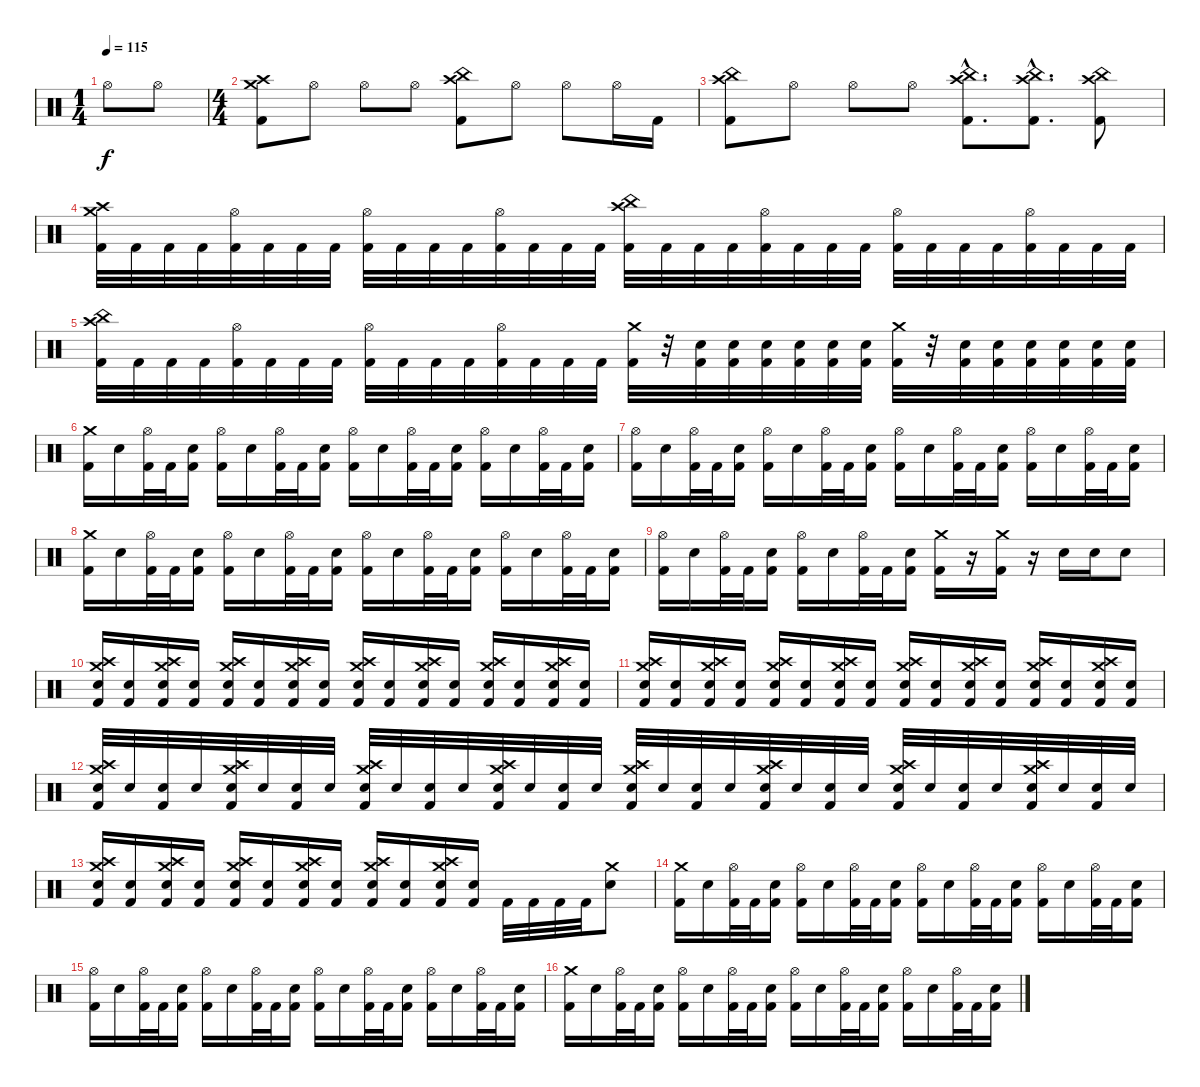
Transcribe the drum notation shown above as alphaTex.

\track "" {instrument percussion}
\staff {score}
\articulation defaults
\ts (1 4)
\tempo 115
\clef neutral
\ks c "Hi-Hat (open)".8{dy f} "Hi-Hat (open)".8
|
\ts (4 4)
("Kick (hit) 2" "Crash high (hit)" "Crash medium (hit)").8 "Hi-Hat (open)".8 "Hi-Hat (open)".8 "Hi-Hat (open)".8 ("Kick (hit) 2" "Crash high (hit)" "China (hit)").8 "Hi-Hat (open)".8 "Hi-Hat (open)".8 "Hi-Hat (open)".16 "Kick (hit) 2".16 |
("Kick (hit) 2" "Crash high (hit)" "China (hit)").8 "Hi-Hat (open)".8 "Hi-Hat (open)".8 "Hi-Hat (open)".8 ("Kick (hit) 2"{hac} "China (hit)"{hac} "Crash high (hit)"{hac}).8{d} ("Kick (hit) 2"{hac} "China (hit)"{hac} "Crash high (hit)"{hac}).8{d} ("Kick (hit) 2" "China (hit)" "Crash high (hit)").8 |
("Kick (hit) 2" "Crash high (hit)" "Crash medium (hit)").32 "Kick (hit) 2".32 "Kick (hit) 2".32 "Kick (hit) 2".32 ("Kick (hit) 2" "Hi-Hat (open)").32 "Kick (hit) 2".32 "Kick (hit) 2".32 "Kick (hit) 2".32 ("Kick (hit) 2" "Hi-Hat (open)").32 "Kick (hit) 2".32 "Kick (hit) 2".32 "Kick (hit) 2".32 ("Kick (hit) 2" "Hi-Hat (open)").32 "Kick (hit) 2".32 "Kick (hit) 2".32 "Kick (hit) 2".32 ("Kick (hit) 2" "Crash high (hit)" "China (hit)").32 "Kick (hit) 2".32 "Kick (hit) 2".32 "Kick (hit) 2".32 ("Kick (hit) 2" "Hi-Hat (open)").32 "Kick (hit) 2".32 "Kick (hit) 2".32 "Kick (hit) 2".32 ("Kick (hit) 2" "Hi-Hat (open)").32 "Kick (hit) 2".32 "Kick (hit) 2".32 "Kick (hit) 2".32 ("Kick (hit) 2" "Hi-Hat (open)").32 "Kick (hit) 2".32 "Kick (hit) 2".32 "Kick (hit) 2".32 |
("Kick (hit) 2" "Crash high (hit)" "China (hit)").32 "Kick (hit) 2".32 "Kick (hit) 2".32 "Kick (hit) 2".32 ("Kick (hit) 2" "Hi-Hat (open)").32 "Kick (hit) 2".32 "Kick (hit) 2".32 "Kick (hit) 2".32 ("Kick (hit) 2" "Hi-Hat (open)").32 "Kick (hit) 2".32 "Kick (hit) 2".32 "Kick (hit) 2".32 ("Kick (hit) 2" "Hi-Hat (open)").32 "Kick (hit) 2".32 "Kick (hit) 2".32 "Kick (hit) 2".32 ("Kick (hit) 2" "Crash medium (hit)").32 r.32 ("Kick (hit) 2" "Electric Snare (hit)").32 ("Kick (hit) 2" "Electric Snare (hit)").32 ("Kick (hit) 2" "Electric Snare (hit)").32 ("Kick (hit) 2" "Electric Snare (hit)").32 ("Kick (hit) 2" "Electric Snare (hit)").32 ("Kick (hit) 2" "Electric Snare (hit)").32 ("Kick (hit) 2" "Crash medium (hit)").32 r.32 ("Kick (hit) 2" "Electric Snare (hit)").32 ("Kick (hit) 2" "Electric Snare (hit)").32 ("Kick (hit) 2" "Electric Snare (hit)").32 ("Kick (hit) 2" "Electric Snare (hit)").32 ("Kick (hit) 2" "Electric Snare (hit)").32 ("Kick (hit) 2" "Electric Snare (hit)").32 |
("Kick (hit) 2" "Crash medium (hit)").16 "Electric Snare (hit)".16 ("Kick (hit) 2" "Hi-Hat (open)").32 "Kick (hit) 2".32 ("Kick (hit) 2" "Electric Snare (hit)").16 ("Kick (hit) 2" "Hi-Hat (open)").16 "Electric Snare (hit)".16 ("Kick (hit) 2" "Hi-Hat (open)").32 "Kick (hit) 2".32 ("Kick (hit) 2" "Electric Snare (hit)").16 ("Kick (hit) 2" "Hi-Hat (open)").16 "Electric Snare (hit)".16 ("Kick (hit) 2" "Hi-Hat (open)").32 "Kick (hit) 2".32 ("Kick (hit) 2" "Electric Snare (hit)").16 ("Kick (hit) 2" "Hi-Hat (open)").16 "Electric Snare (hit)".16 ("Kick (hit) 2" "Hi-Hat (open)").32 "Kick (hit) 2".32 ("Kick (hit) 2" "Electric Snare (hit)").16 |
("Kick (hit) 2" "Hi-Hat (open)").16 "Electric Snare (hit)".16 ("Kick (hit) 2" "Hi-Hat (open)").32 "Kick (hit) 2".32 ("Kick (hit) 2" "Electric Snare (hit)").16 ("Kick (hit) 2" "Hi-Hat (open)").16 "Electric Snare (hit)".16 ("Kick (hit) 2" "Hi-Hat (open)").32 "Kick (hit) 2".32 ("Kick (hit) 2" "Electric Snare (hit)").16 ("Kick (hit) 2" "Hi-Hat (open)").16 "Electric Snare (hit)".16 ("Kick (hit) 2" "Hi-Hat (open)").32 "Kick (hit) 2".32 ("Kick (hit) 2" "Electric Snare (hit)").16 ("Kick (hit) 2" "Hi-Hat (open)").16 "Electric Snare (hit)".16 ("Kick (hit) 2" "Hi-Hat (open)").32 "Kick (hit) 2".32 ("Kick (hit) 2" "Electric Snare (hit)").16 |
("Kick (hit) 2" "Crash medium (hit)").16 "Electric Snare (hit)".16 ("Kick (hit) 2" "Hi-Hat (open)").32 "Kick (hit) 2".32 ("Kick (hit) 2" "Electric Snare (hit)").16 ("Kick (hit) 2" "Hi-Hat (open)").16 "Electric Snare (hit)".16 ("Kick (hit) 2" "Hi-Hat (open)").32 "Kick (hit) 2".32 ("Kick (hit) 2" "Electric Snare (hit)").16 ("Kick (hit) 2" "Hi-Hat (open)").16 "Electric Snare (hit)".16 ("Kick (hit) 2" "Hi-Hat (open)").32 "Kick (hit) 2".32 ("Kick (hit) 2" "Electric Snare (hit)").16 ("Kick (hit) 2" "Hi-Hat (open)").16 "Electric Snare (hit)".16 ("Kick (hit) 2" "Hi-Hat (open)").32 "Kick (hit) 2".32 ("Kick (hit) 2" "Electric Snare (hit)").16 |
("Kick (hit) 2" "Hi-Hat (open)").16 "Electric Snare (hit)".16 ("Kick (hit) 2" "Hi-Hat (open)").32 "Kick (hit) 2".32 ("Kick (hit) 2" "Electric Snare (hit)").16 ("Kick (hit) 2" "Hi-Hat (open)").16 "Electric Snare (hit)".16 ("Kick (hit) 2" "Hi-Hat (open)").32 "Kick (hit) 2".32 ("Kick (hit) 2" "Electric Snare (hit)").16 ("Kick (hit) 2" "Crash medium (hit)").16 r.16 ("Kick (hit) 2" "Crash medium (hit)").16 r.16 "Electric Snare (hit)".16 "Electric Snare (hit)".16 "Electric Snare (hit)".8 |
("Kick (hit) 2" "Electric Snare (hit)" "Crash high (hit)" "Crash medium (hit)").16 ("Kick (hit) 2" "Electric Snare (hit)").16 ("Kick (hit) 2" "Electric Snare (hit)" "Crash high (hit)" "Crash medium (hit)").16 ("Kick (hit) 2" "Electric Snare (hit)").16 ("Kick (hit) 2" "Electric Snare (hit)" "Crash high (hit)" "Crash medium (hit)").16 ("Kick (hit) 2" "Electric Snare (hit)").16 ("Kick (hit) 2" "Electric Snare (hit)" "Crash high (hit)" "Crash medium (hit)").16 ("Kick (hit) 2" "Electric Snare (hit)").16 ("Kick (hit) 2" "Electric Snare (hit)" "Crash high (hit)" "Crash medium (hit)").16 ("Kick (hit) 2" "Electric Snare (hit)").16 ("Kick (hit) 2" "Electric Snare (hit)" "Crash high (hit)" "Crash medium (hit)").16 ("Kick (hit) 2" "Electric Snare (hit)").16 ("Kick (hit) 2" "Electric Snare (hit)" "Crash high (hit)" "Crash medium (hit)").16 ("Kick (hit) 2" "Electric Snare (hit)").16 ("Kick (hit) 2" "Electric Snare (hit)" "Crash high (hit)" "Crash medium (hit)").16 ("Kick (hit) 2" "Electric Snare (hit)").16 |
("Kick (hit) 2" "Electric Snare (hit)" "Crash high (hit)" "Crash medium (hit)").16 ("Kick (hit) 2" "Electric Snare (hit)").16 ("Kick (hit) 2" "Electric Snare (hit)" "Crash high (hit)" "Crash medium (hit)").16 ("Kick (hit) 2" "Electric Snare (hit)").16 ("Kick (hit) 2" "Electric Snare (hit)" "Crash high (hit)" "Crash medium (hit)").16 ("Kick (hit) 2" "Electric Snare (hit)").16 ("Kick (hit) 2" "Electric Snare (hit)" "Crash high (hit)" "Crash medium (hit)").16 ("Kick (hit) 2" "Electric Snare (hit)").16 ("Kick (hit) 2" "Electric Snare (hit)" "Crash high (hit)" "Crash medium (hit)").16 ("Kick (hit) 2" "Electric Snare (hit)").16 ("Kick (hit) 2" "Electric Snare (hit)" "Crash high (hit)" "Crash medium (hit)").16 ("Kick (hit) 2" "Electric Snare (hit)").16 ("Kick (hit) 2" "Electric Snare (hit)" "Crash high (hit)" "Crash medium (hit)").16 ("Kick (hit) 2" "Electric Snare (hit)").16 ("Kick (hit) 2" "Electric Snare (hit)" "Crash high (hit)" "Crash medium (hit)").16 ("Kick (hit) 2" "Electric Snare (hit)").16 |
("Kick (hit) 2" "Electric Snare (hit)" "Crash high (hit)" "Crash medium (hit)").32 "Electric Snare (hit)".32 ("Kick (hit) 2" "Electric Snare (hit)").32 "Electric Snare (hit)".32 ("Kick (hit) 2" "Electric Snare (hit)" "Crash high (hit)" "Crash medium (hit)").32 "Electric Snare (hit)".32 ("Kick (hit) 2" "Electric Snare (hit)").32 "Electric Snare (hit)".32 ("Kick (hit) 2" "Electric Snare (hit)" "Crash high (hit)" "Crash medium (hit)").32 "Electric Snare (hit)".32 ("Kick (hit) 2" "Electric Snare (hit)").32 "Electric Snare (hit)".32 ("Kick (hit) 2" "Electric Snare (hit)" "Crash high (hit)" "Crash medium (hit)").32 "Electric Snare (hit)".32 ("Kick (hit) 2" "Electric Snare (hit)").32 "Electric Snare (hit)".32 ("Kick (hit) 2" "Electric Snare (hit)" "Crash high (hit)" "Crash medium (hit)").32 "Electric Snare (hit)".32 ("Kick (hit) 2" "Electric Snare (hit)").32 "Electric Snare (hit)".32 ("Kick (hit) 2" "Electric Snare (hit)" "Crash high (hit)" "Crash medium (hit)").32 "Electric Snare (hit)".32 ("Kick (hit) 2" "Electric Snare (hit)").32 "Electric Snare (hit)".32 ("Kick (hit) 2" "Electric Snare (hit)" "Crash high (hit)" "Crash medium (hit)").32 "Electric Snare (hit)".32 ("Kick (hit) 2" "Electric Snare (hit)").32 "Electric Snare (hit)".32 ("Kick (hit) 2" "Electric Snare (hit)" "Crash high (hit)" "Crash medium (hit)").32 "Electric Snare (hit)".32 ("Kick (hit) 2" "Electric Snare (hit)").32 "Electric Snare (hit)".32 |
("Kick (hit) 2" "Electric Snare (hit)" "Crash high (hit)" "Crash medium (hit)").16 ("Kick (hit) 2" "Electric Snare (hit)").16 ("Kick (hit) 2" "Electric Snare (hit)" "Crash high (hit)" "Crash medium (hit)").16 ("Kick (hit) 2" "Electric Snare (hit)").16 ("Kick (hit) 2" "Electric Snare (hit)" "Crash high (hit)" "Crash medium (hit)").16 ("Kick (hit) 2" "Electric Snare (hit)").16 ("Kick (hit) 2" "Electric Snare (hit)" "Crash high (hit)" "Crash medium (hit)").16 ("Kick (hit) 2" "Electric Snare (hit)").16 ("Kick (hit) 2" "Electric Snare (hit)" "Crash high (hit)" "Crash medium (hit)").16 ("Kick (hit) 2" "Electric Snare (hit)").16 ("Kick (hit) 2" "Electric Snare (hit)" "Crash high (hit)" "Crash medium (hit)").16 ("Kick (hit) 2" "Electric Snare (hit)").16 "Kick (hit) 2".32 "Kick (hit) 2".32 "Kick (hit) 2".32 "Kick (hit) 2".32 ("Electric Snare (hit)" "Crash medium (hit)").8 |
("Kick (hit) 2" "Crash medium (hit)").16 "Electric Snare (hit)".16 ("Kick (hit) 2" "Hi-Hat (open)").32 "Kick (hit) 2".32 ("Kick (hit) 2" "Electric Snare (hit)").16 ("Kick (hit) 2" "Hi-Hat (open)").16 "Electric Snare (hit)".16 ("Kick (hit) 2" "Hi-Hat (open)").32 "Kick (hit) 2".32 ("Kick (hit) 2" "Electric Snare (hit)").16 ("Kick (hit) 2" "Hi-Hat (open)").16 "Electric Snare (hit)".16 ("Kick (hit) 2" "Hi-Hat (open)").32 "Kick (hit) 2".32 ("Kick (hit) 2" "Electric Snare (hit)").16 ("Kick (hit) 2" "Hi-Hat (open)").16 "Electric Snare (hit)".16 ("Kick (hit) 2" "Hi-Hat (open)").32 "Kick (hit) 2".32 ("Kick (hit) 2" "Electric Snare (hit)").16 |
("Kick (hit) 2" "Hi-Hat (open)").16 "Electric Snare (hit)".16 ("Kick (hit) 2" "Hi-Hat (open)").32 "Kick (hit) 2".32 ("Kick (hit) 2" "Electric Snare (hit)").16 ("Kick (hit) 2" "Hi-Hat (open)").16 "Electric Snare (hit)".16 ("Kick (hit) 2" "Hi-Hat (open)").32 "Kick (hit) 2".32 ("Kick (hit) 2" "Electric Snare (hit)").16 ("Kick (hit) 2" "Hi-Hat (open)").16 "Electric Snare (hit)".16 ("Kick (hit) 2" "Hi-Hat (open)").32 "Kick (hit) 2".32 ("Kick (hit) 2" "Electric Snare (hit)").16 ("Kick (hit) 2" "Hi-Hat (open)").16 "Electric Snare (hit)".16 ("Kick (hit) 2" "Hi-Hat (open)").32 "Kick (hit) 2".32 ("Kick (hit) 2" "Electric Snare (hit)").16 |
("Kick (hit) 2" "Crash medium (hit)").16 "Electric Snare (hit)".16 ("Kick (hit) 2" "Hi-Hat (open)").32 "Kick (hit) 2".32 ("Kick (hit) 2" "Electric Snare (hit)").16 ("Kick (hit) 2" "Hi-Hat (open)").16 "Electric Snare (hit)".16 ("Kick (hit) 2" "Hi-Hat (open)").32 "Kick (hit) 2".32 ("Kick (hit) 2" "Electric Snare (hit)").16 ("Kick (hit) 2" "Hi-Hat (open)").16 "Electric Snare (hit)".16 ("Kick (hit) 2" "Hi-Hat (open)").32 "Kick (hit) 2".32 ("Kick (hit) 2" "Electric Snare (hit)").16 ("Kick (hit) 2" "Hi-Hat (open)").16 "Electric Snare (hit)".16 ("Kick (hit) 2" "Hi-Hat (open)").32 "Kick (hit) 2".32 ("Kick (hit) 2" "Electric Snare (hit)").16
